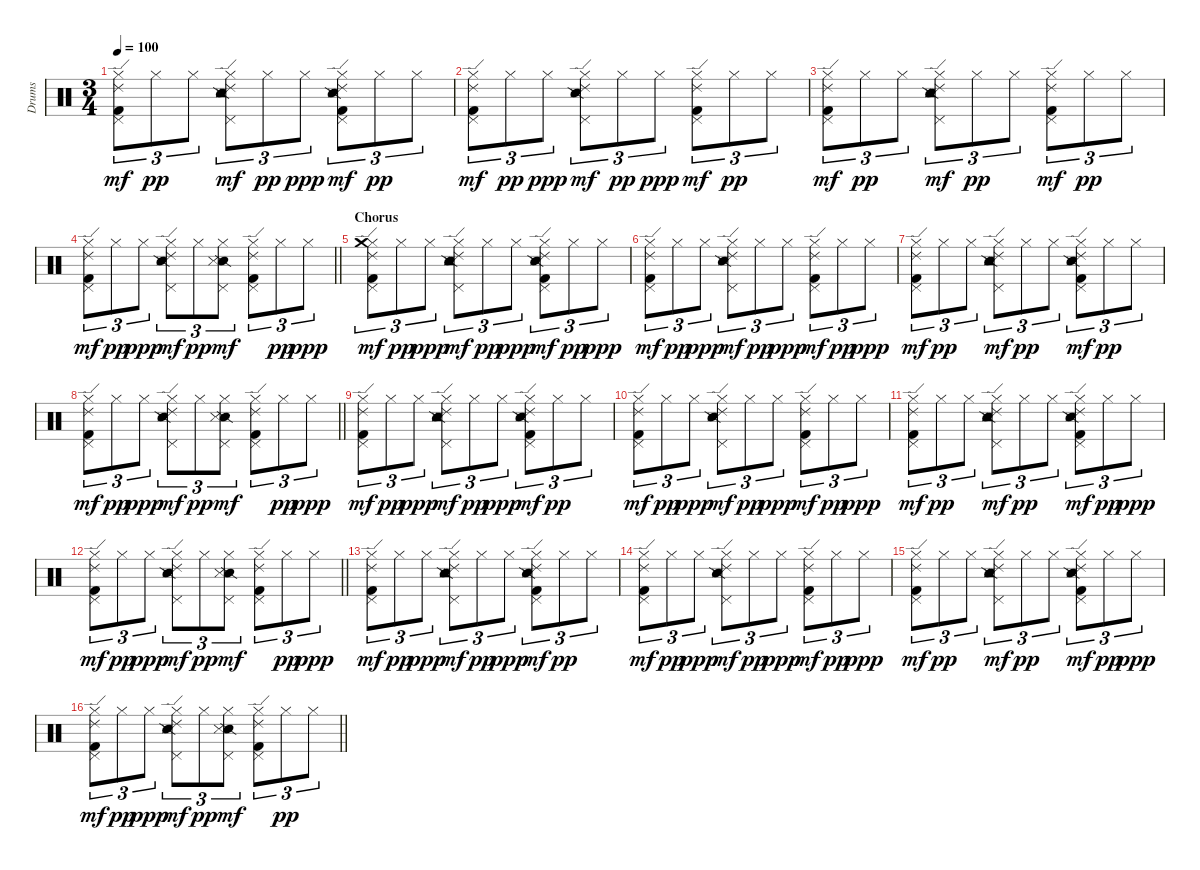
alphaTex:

\track ("Drums" "Drums") {instrument percussion}
\staff {score}
\articulation defaults
\ts (3 4)
\tempo 100
\clef neutral
\ks c
("Hi-Hat (closed)" "Ride (edge) 2" "Pedal Hi-Hat (hit)" "Kick (hit) 2").8{tu (3 2) dy mf} "Hi-Hat (closed)".8{tu (3 2) dy pp} "Hi-Hat (closed)".8{tu (3 2)} ("Hi-Hat (closed)" "Ride (edge) 2" "Pedal Hi-Hat (hit)" "Snare (side stick) 2" "Snare (side stick) 3" "Tambourine (hit)").8{tu (3 2) dy mf} "Hi-Hat (closed)".8{tu (3 2) dy pp} "Hi-Hat (closed)".8{tu (3 2) dy ppp} ("Hi-Hat (closed)" "Ride (edge) 2" "Pedal Hi-Hat (hit)" "Snare (side stick) 2" "Snare (side stick) 3" "Kick (hit) 2").8{tu (3 2) dy mf} "Hi-Hat (closed)".8{tu (3 2) dy pp} "Hi-Hat (closed)".8{tu (3 2)} |
("Hi-Hat (closed)" "Ride (edge) 2" "Pedal Hi-Hat (hit)" "Kick (hit) 2").8{tu (3 2) dy mf} "Hi-Hat (closed)".8{tu (3 2) dy pp} "Hi-Hat (closed)".8{tu (3 2) dy ppp} ("Hi-Hat (closed)" "Ride (edge) 2" "Pedal Hi-Hat (hit)" "Snare (side stick) 2" "Snare (side stick) 3").8{tu (3 2) dy mf} "Hi-Hat (closed)".8{tu (3 2) dy pp} "Hi-Hat (closed)".8{tu (3 2) dy ppp} ("Hi-Hat (closed)" "Ride (edge) 2" "Pedal Hi-Hat (hit)" "Kick (hit) 2").8{tu (3 2) dy mf} "Hi-Hat (closed)".8{tu (3 2) dy pp} "Hi-Hat (closed)".8{tu (3 2)} |
("Hi-Hat (closed)" "Ride (edge) 2" "Pedal Hi-Hat (hit)" "Kick (hit) 2").8{tu (3 2) dy mf} "Hi-Hat (closed)".8{tu (3 2) dy pp} "Hi-Hat (closed)".8{tu (3 2)} ("Hi-Hat (closed)" "Ride (edge) 2" "Pedal Hi-Hat (hit)" "Snare (side stick) 2" "Snare (side stick) 3" "Tambourine (hit)").8{tu (3 2) dy mf} "Hi-Hat (closed)".8{tu (3 2) dy pp} "Hi-Hat (closed)".8{tu (3 2)} ("Hi-Hat (closed)" "Ride (edge) 2" "Pedal Hi-Hat (hit)" "Kick (hit) 2").8{tu (3 2) dy mf} "Hi-Hat (closed)".8{tu (3 2) dy pp} "Hi-Hat (closed)".8{tu (3 2)} |
\barLineRight lightlight
("Hi-Hat (closed)" "Ride (edge) 2" "Pedal Hi-Hat (hit)" "Kick (hit) 2").8{tu (3 2) dy mf} "Hi-Hat (closed)".8{tu (3 2) dy pp} "Hi-Hat (closed)".8{tu (3 2) dy ppp} ("Hi-Hat (closed)" "Ride (edge) 2" "Pedal Hi-Hat (hit)" "Snare (side stick) 2" "Snare (side stick) 3").8{tu (3 2) dy mf} "Hi-Hat (closed)".8{tu (3 2) dy pp} ("Hi-Hat (closed)" "Pedal Hi-Hat (hit)" "Snare (side stick) 2" "Snare (side stick) 3").8{tu (3 2) dy mf} ("Hi-Hat (closed)" "Ride (edge) 2" "Pedal Hi-Hat (hit)" "Kick (hit) 2").8{tu (3 2)} "Hi-Hat (closed)".8{tu (3 2) dy pp} "Hi-Hat (closed)".8{tu (3 2) dy ppp} |
\section ("" "Chorus")
("Hi-Hat (closed)" "Ride (edge) 2" "Pedal Hi-Hat (hit)" "Crash medium (hit)" "Kick (hit) 2").8{tu (3 2) dy mf} "Hi-Hat (closed)".8{tu (3 2) dy pp} "Hi-Hat (closed)".8{tu (3 2) dy ppp} ("Hi-Hat (closed)" "Ride (edge) 2" "Pedal Hi-Hat (hit)" "Snare (side stick) 2" "Snare (side stick) 3" "Tambourine (hit)").8{tu (3 2) dy mf} "Hi-Hat (closed)".8{tu (3 2) dy pp} "Hi-Hat (closed)".8{tu (3 2) dy ppp} ("Hi-Hat (closed)" "Ride (edge) 2" "Pedal Hi-Hat (hit)" "Snare (side stick) 2" "Snare (side stick) 3" "Kick (hit) 2").8{tu (3 2) dy mf} "Hi-Hat (closed)".8{tu (3 2) dy pp} "Hi-Hat (closed)".8{tu (3 2) dy ppp} |
("Hi-Hat (closed)" "Ride (edge) 2" "Pedal Hi-Hat (hit)" "Kick (hit) 2").8{tu (3 2) dy mf} "Hi-Hat (closed)".8{tu (3 2) dy pp} "Hi-Hat (closed)".8{tu (3 2) dy ppp} ("Hi-Hat (closed)" "Ride (edge) 2" "Pedal Hi-Hat (hit)" "Snare (side stick) 2" "Snare (side stick) 3").8{tu (3 2) dy mf} "Hi-Hat (closed)".8{tu (3 2) dy pp} "Hi-Hat (closed)".8{tu (3 2) dy ppp} ("Hi-Hat (closed)" "Ride (edge) 2" "Pedal Hi-Hat (hit)" "Kick (hit) 2").8{tu (3 2) dy mf} "Hi-Hat (closed)".8{tu (3 2) dy pp} "Hi-Hat (closed)".8{tu (3 2) dy ppp} |
("Hi-Hat (closed)" "Ride (edge) 2" "Pedal Hi-Hat (hit)" "Kick (hit) 2").8{tu (3 2) dy mf} "Hi-Hat (closed)".8{tu (3 2) dy pp} "Hi-Hat (closed)".8{tu (3 2)} ("Hi-Hat (closed)" "Ride (edge) 2" "Pedal Hi-Hat (hit)" "Snare (side stick) 2" "Snare (side stick) 3" "Tambourine (hit)").8{tu (3 2) dy mf} "Hi-Hat (closed)".8{tu (3 2) dy pp} "Hi-Hat (closed)".8{tu (3 2)} ("Hi-Hat (closed)" "Ride (edge) 2" "Pedal Hi-Hat (hit)" "Snare (side stick) 2" "Snare (side stick) 3" "Kick (hit) 2").8{tu (3 2) dy mf} "Hi-Hat (closed)".8{tu (3 2) dy pp} "Hi-Hat (closed)".8{tu (3 2)} |
\barLineRight lightlight
("Hi-Hat (closed)" "Ride (edge) 2" "Pedal Hi-Hat (hit)" "Kick (hit) 2").8{tu (3 2) dy mf} "Hi-Hat (closed)".8{tu (3 2) dy pp} "Hi-Hat (closed)".8{tu (3 2) dy ppp} ("Hi-Hat (closed)" "Ride (edge) 2" "Pedal Hi-Hat (hit)" "Snare (side stick) 2" "Snare (side stick) 3").8{tu (3 2) dy mf} "Hi-Hat (closed)".8{tu (3 2) dy pp} ("Hi-Hat (closed)" "Pedal Hi-Hat (hit)" "Snare (side stick) 2" "Snare (side stick) 3").8{tu (3 2) dy mf} ("Hi-Hat (closed)" "Ride (edge) 2" "Pedal Hi-Hat (hit)" "Kick (hit) 2").8{tu (3 2)} "Hi-Hat (closed)".8{tu (3 2) dy pp} "Hi-Hat (closed)".8{tu (3 2) dy ppp} |
("Hi-Hat (closed)" "Ride (edge) 2" "Pedal Hi-Hat (hit)" "Kick (hit) 2").8{tu (3 2) dy mf} "Hi-Hat (closed)".8{tu (3 2) dy pp} "Hi-Hat (closed)".8{tu (3 2) dy ppp} ("Hi-Hat (closed)" "Ride (edge) 2" "Pedal Hi-Hat (hit)" "Snare (side stick) 2" "Snare (side stick) 3" "Tambourine (hit)").8{tu (3 2) dy mf} "Hi-Hat (closed)".8{tu (3 2) dy pp} "Hi-Hat (closed)".8{tu (3 2) dy ppp} ("Hi-Hat (closed)" "Ride (edge) 2" "Pedal Hi-Hat (hit)" "Snare (side stick) 2" "Snare (side stick) 3" "Kick (hit) 2").8{tu (3 2) dy mf} "Hi-Hat (closed)".8{tu (3 2) dy pp} "Hi-Hat (closed)".8{tu (3 2)} |
("Hi-Hat (closed)" "Ride (edge) 2" "Pedal Hi-Hat (hit)" "Kick (hit) 2").8{tu (3 2) dy mf} "Hi-Hat (closed)".8{tu (3 2) dy pp} "Hi-Hat (closed)".8{tu (3 2) dy ppp} ("Hi-Hat (closed)" "Ride (edge) 2" "Pedal Hi-Hat (hit)" "Snare (side stick) 2" "Snare (side stick) 3").8{tu (3 2) dy mf} "Hi-Hat (closed)".8{tu (3 2) dy pp} "Hi-Hat (closed)".8{tu (3 2) dy ppp} ("Hi-Hat (closed)" "Ride (edge) 2" "Pedal Hi-Hat (hit)" "Kick (hit) 2").8{tu (3 2) dy mf} "Hi-Hat (closed)".8{tu (3 2) dy pp} "Hi-Hat (closed)".8{tu (3 2) dy ppp} |
("Hi-Hat (closed)" "Ride (edge) 2" "Pedal Hi-Hat (hit)" "Kick (hit) 2").8{tu (3 2) dy mf} "Hi-Hat (closed)".8{tu (3 2) dy pp} "Hi-Hat (closed)".8{tu (3 2)} ("Hi-Hat (closed)" "Ride (edge) 2" "Pedal Hi-Hat (hit)" "Snare (side stick) 2" "Snare (side stick) 3" "Tambourine (hit)").8{tu (3 2) dy mf} "Hi-Hat (closed)".8{tu (3 2) dy pp} "Hi-Hat (closed)".8{tu (3 2)} ("Hi-Hat (closed)" "Ride (edge) 2" "Pedal Hi-Hat (hit)" "Snare (side stick) 2" "Snare (side stick) 3" "Kick (hit) 2").8{tu (3 2) dy mf} "Hi-Hat (closed)".8{tu (3 2) dy pp} "Hi-Hat (closed)".8{tu (3 2) dy ppp} |
\barLineRight lightlight
("Hi-Hat (closed)" "Ride (edge) 2" "Pedal Hi-Hat (hit)" "Kick (hit) 2").8{tu (3 2) dy mf} "Hi-Hat (closed)".8{tu (3 2) dy pp} "Hi-Hat (closed)".8{tu (3 2) dy ppp} ("Hi-Hat (closed)" "Ride (edge) 2" "Pedal Hi-Hat (hit)" "Snare (side stick) 2" "Snare (side stick) 3").8{tu (3 2) dy mf} "Hi-Hat (closed)".8{tu (3 2) dy pp} ("Hi-Hat (closed)" "Pedal Hi-Hat (hit)" "Snare (side stick) 2" "Snare (side stick) 3").8{tu (3 2) dy mf} ("Hi-Hat (closed)" "Ride (edge) 2" "Pedal Hi-Hat (hit)" "Kick (hit) 2").8{tu (3 2)} "Hi-Hat (closed)".8{tu (3 2) dy pp} "Hi-Hat (closed)".8{tu (3 2) dy ppp} |
("Hi-Hat (closed)" "Ride (edge) 2" "Pedal Hi-Hat (hit)" "Kick (hit) 2").8{tu (3 2) dy mf} "Hi-Hat (closed)".8{tu (3 2) dy pp} "Hi-Hat (closed)".8{tu (3 2) dy ppp} ("Hi-Hat (closed)" "Ride (edge) 2" "Pedal Hi-Hat (hit)" "Snare (side stick) 2" "Snare (side stick) 3" "Tambourine (hit)").8{tu (3 2) dy mf} "Hi-Hat (closed)".8{tu (3 2) dy pp} "Hi-Hat (closed)".8{tu (3 2) dy ppp} ("Hi-Hat (closed)" "Ride (edge) 2" "Pedal Hi-Hat (hit)" "Snare (side stick) 2" "Snare (side stick) 3" "Kick (hit) 2").8{tu (3 2) dy mf} "Hi-Hat (closed)".8{tu (3 2) dy pp} "Hi-Hat (closed)".8{tu (3 2)} |
("Hi-Hat (closed)" "Ride (edge) 2" "Pedal Hi-Hat (hit)" "Kick (hit) 2").8{tu (3 2) dy mf} "Hi-Hat (closed)".8{tu (3 2) dy pp} "Hi-Hat (closed)".8{tu (3 2) dy ppp} ("Hi-Hat (closed)" "Ride (edge) 2" "Pedal Hi-Hat (hit)" "Snare (side stick) 2" "Snare (side stick) 3").8{tu (3 2) dy mf} "Hi-Hat (closed)".8{tu (3 2) dy pp} "Hi-Hat (closed)".8{tu (3 2) dy ppp} ("Hi-Hat (closed)" "Ride (edge) 2" "Pedal Hi-Hat (hit)" "Kick (hit) 2").8{tu (3 2) dy mf} "Hi-Hat (closed)".8{tu (3 2) dy pp} "Hi-Hat (closed)".8{tu (3 2) dy ppp} |
("Hi-Hat (closed)" "Ride (edge) 2" "Pedal Hi-Hat (hit)" "Kick (hit) 2").8{tu (3 2) dy mf} "Hi-Hat (closed)".8{tu (3 2) dy pp} "Hi-Hat (closed)".8{tu (3 2)} ("Hi-Hat (closed)" "Ride (edge) 2" "Pedal Hi-Hat (hit)" "Snare (side stick) 2" "Snare (side stick) 3" "Tambourine (hit)").8{tu (3 2) dy mf} "Hi-Hat (closed)".8{tu (3 2) dy pp} "Hi-Hat (closed)".8{tu (3 2)} ("Hi-Hat (closed)" "Ride (edge) 2" "Pedal Hi-Hat (hit)" "Snare (side stick) 2" "Snare (side stick) 3" "Kick (hit) 2").8{tu (3 2) dy mf} "Hi-Hat (closed)".8{tu (3 2) dy pp} "Hi-Hat (closed)".8{tu (3 2) dy ppp} |
\barLineRight lightlight
("Hi-Hat (closed)" "Ride (edge) 2" "Pedal Hi-Hat (hit)" "Kick (hit) 2").8{tu (3 2) dy mf} "Hi-Hat (closed)".8{tu (3 2) dy pp} "Hi-Hat (closed)".8{tu (3 2) dy ppp} ("Hi-Hat (closed)" "Ride (edge) 2" "Pedal Hi-Hat (hit)" "Snare (side stick) 2" "Snare (side stick) 3").8{tu (3 2) dy mf} "Hi-Hat (closed)".8{tu (3 2) dy pp} ("Hi-Hat (closed)" "Pedal Hi-Hat (hit)" "Snare (side stick) 2" "Snare (side stick) 3").8{tu (3 2) dy mf} ("Hi-Hat (closed)" "Ride (edge) 2" "Pedal Hi-Hat (hit)" "Kick (hit) 2").8{tu (3 2)} "Hi-Hat (closed)".8{tu (3 2) dy pp} "Hi-Hat (closed)".8{tu (3 2)}
